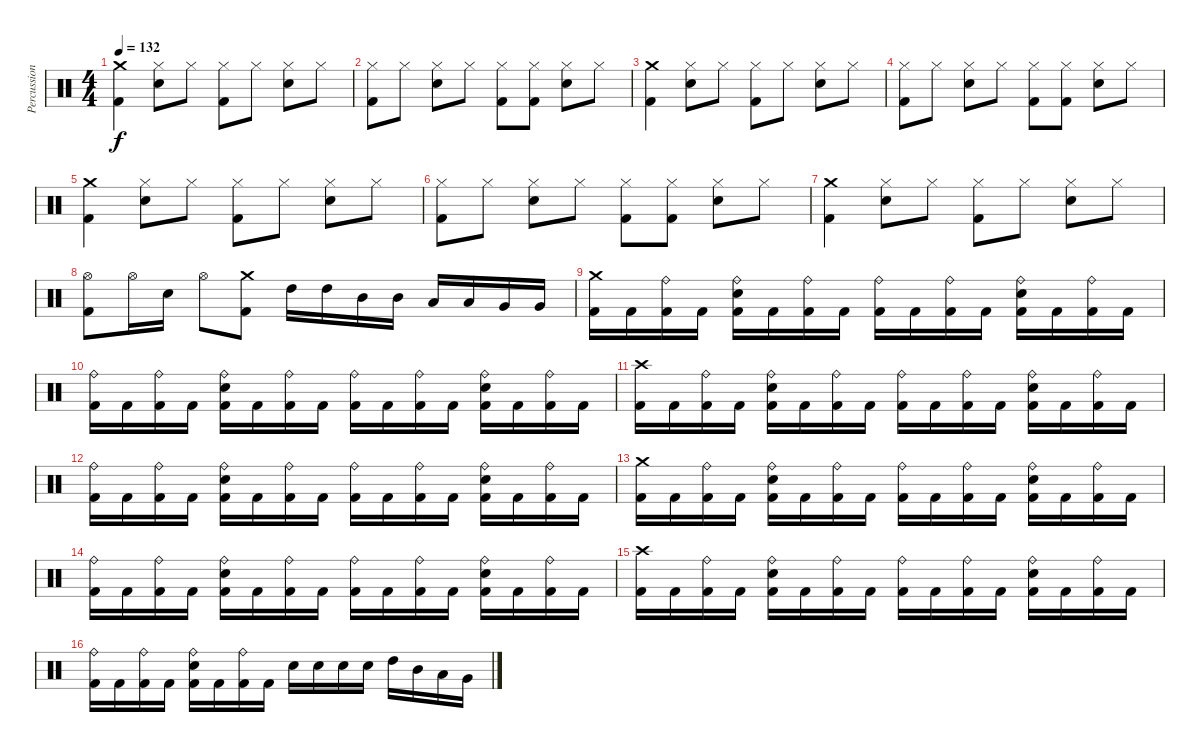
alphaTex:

\track ("Percussion" "Percussion") {instrument percussion}
\staff {score}
\articulation defaults
\ts (4 4)
\tempo 132
\clef neutral
\ks c
("Kick (hit) 2" "Crash medium (hit)").4{dy f} ("Snare (hit) 2" "Hi-Hat (closed)").8 "Hi-Hat (closed)".8 ("Kick (hit) 2" "Hi-Hat (closed)").8 "Hi-Hat (closed)".8 ("Snare (hit) 2" "Hi-Hat (closed)").8 "Hi-Hat (closed)".8 |
("Kick (hit) 2" "Hi-Hat (closed)").8 "Hi-Hat (closed)".8 ("Snare (hit) 2" "Hi-Hat (closed)").8 "Hi-Hat (closed)".8 ("Kick (hit) 2" "Hi-Hat (closed)").8 ("Kick (hit) 2" "Hi-Hat (closed)").8 ("Snare (hit) 2" "Hi-Hat (closed)").8 "Hi-Hat (closed)".8 |
("Kick (hit) 2" "Crash medium (hit)").4 ("Snare (hit) 2" "Hi-Hat (closed)").8 "Hi-Hat (closed)".8 ("Kick (hit) 2" "Hi-Hat (closed)").8 "Hi-Hat (closed)".8 ("Snare (hit) 2" "Hi-Hat (closed)").8 "Hi-Hat (closed)".8 |
("Kick (hit) 2" "Hi-Hat (closed)").8 "Hi-Hat (closed)".8 ("Snare (hit) 2" "Hi-Hat (closed)").8 "Hi-Hat (closed)".8 ("Kick (hit) 2" "Hi-Hat (closed)").8 ("Kick (hit) 2" "Hi-Hat (closed)").8 ("Snare (hit) 2" "Hi-Hat (closed)").8 "Hi-Hat (closed)".8 |
("Kick (hit) 2" "Crash medium (hit)").4 ("Snare (hit) 2" "Hi-Hat (closed)").8 "Hi-Hat (closed)".8 ("Kick (hit) 2" "Hi-Hat (closed)").8 "Hi-Hat (closed)".8 ("Snare (hit) 2" "Hi-Hat (closed)").8 "Hi-Hat (closed)".8 |
("Kick (hit) 2" "Hi-Hat (closed)").8 "Hi-Hat (closed)".8 ("Snare (hit) 2" "Hi-Hat (closed)").8 "Hi-Hat (closed)".8 ("Kick (hit) 2" "Hi-Hat (closed)").8 ("Kick (hit) 2" "Hi-Hat (closed)").8 ("Snare (hit) 2" "Hi-Hat (closed)").8 "Hi-Hat (closed)".8 |
("Kick (hit) 2" "Crash medium (hit)").4 ("Snare (hit) 2" "Hi-Hat (closed)").8 "Hi-Hat (closed)".8 ("Kick (hit) 2" "Hi-Hat (closed)").8 "Hi-Hat (closed)".8 ("Snare (hit) 2" "Hi-Hat (closed)").8 "Hi-Hat (closed)".8 |
("Kick (hit) 2" "Hi-Hat (open)").8 "Hi-Hat (open)".16 "Snare (hit) 2".16 "Hi-Hat (open)".8 ("Kick (hit) 2" "Crash medium (hit)").8 "High Tom (hit)".16 "High Tom (hit)".16 "Mid Tom (hit)".16 "Mid Tom (hit)".16 "Low Tom (hit)".16 "Low Tom (hit)".16 "Very Low Tom (hit)".16 "Very Low Tom (hit)".16 |
("Crash medium (hit)" "Kick (hit) 2").16 "Kick (hit) 2".16 ("Ride (bell)" "Kick (hit) 2").16 "Kick (hit) 2".16 ("Snare (hit) 2" "Ride (bell)" "Kick (hit) 2").16 "Kick (hit) 2".16 ("Ride (bell)" "Kick (hit) 2").16 "Kick (hit) 2".16 ("Ride (bell)" "Kick (hit) 2").16 "Kick (hit) 2".16 ("Ride (bell)" "Kick (hit) 2").16 "Kick (hit) 2".16 ("Snare (hit) 2" "Ride (bell)" "Kick (hit) 2").16 "Kick (hit) 2".16 ("Ride (bell)" "Kick (hit) 2").16 "Kick (hit) 2".16 |
("Ride (bell)" "Kick (hit) 2").16 "Kick (hit) 2".16 ("Ride (bell)" "Kick (hit) 2").16 "Kick (hit) 2".16 ("Snare (hit) 2" "Ride (bell)" "Kick (hit) 2").16 "Kick (hit) 2".16 ("Ride (bell)" "Kick (hit) 2").16 "Kick (hit) 2".16 ("Ride (bell)" "Kick (hit) 2").16 "Kick (hit) 2".16 ("Ride (bell)" "Kick (hit) 2").16 "Kick (hit) 2".16 ("Snare (hit) 2" "Ride (bell)" "Kick (hit) 2").16 "Kick (hit) 2".16 ("Ride (bell)" "Kick (hit) 2").16 "Kick (hit) 2".16 |
("Crash high (hit)" "Kick (hit) 2").16 "Kick (hit) 2".16 ("Ride (bell)" "Kick (hit) 2").16 "Kick (hit) 2".16 ("Snare (hit) 2" "Ride (bell)" "Kick (hit) 2").16 "Kick (hit) 2".16 ("Ride (bell)" "Kick (hit) 2").16 "Kick (hit) 2".16 ("Ride (bell)" "Kick (hit) 2").16 "Kick (hit) 2".16 ("Ride (bell)" "Kick (hit) 2").16 "Kick (hit) 2".16 ("Snare (hit) 2" "Ride (bell)" "Kick (hit) 2").16 "Kick (hit) 2".16 ("Ride (bell)" "Kick (hit) 2").16 "Kick (hit) 2".16 |
("Ride (bell)" "Kick (hit) 2").16 "Kick (hit) 2".16 ("Ride (bell)" "Kick (hit) 2").16 "Kick (hit) 2".16 ("Snare (hit) 2" "Ride (bell)" "Kick (hit) 2").16 "Kick (hit) 2".16 ("Ride (bell)" "Kick (hit) 2").16 "Kick (hit) 2".16 ("Ride (bell)" "Kick (hit) 2").16 "Kick (hit) 2".16 ("Ride (bell)" "Kick (hit) 2").16 "Kick (hit) 2".16 ("Snare (hit) 2" "Ride (bell)" "Kick (hit) 2").16 "Kick (hit) 2".16 ("Ride (bell)" "Kick (hit) 2").16 "Kick (hit) 2".16 |
("Crash medium (hit)" "Kick (hit) 2").16 "Kick (hit) 2".16 ("Ride (bell)" "Kick (hit) 2").16 "Kick (hit) 2".16 ("Snare (hit) 2" "Ride (bell)" "Kick (hit) 2").16 "Kick (hit) 2".16 ("Ride (bell)" "Kick (hit) 2").16 "Kick (hit) 2".16 ("Ride (bell)" "Kick (hit) 2").16 "Kick (hit) 2".16 ("Ride (bell)" "Kick (hit) 2").16 "Kick (hit) 2".16 ("Snare (hit) 2" "Ride (bell)" "Kick (hit) 2").16 "Kick (hit) 2".16 ("Ride (bell)" "Kick (hit) 2").16 "Kick (hit) 2".16 |
("Ride (bell)" "Kick (hit) 2").16 "Kick (hit) 2".16 ("Ride (bell)" "Kick (hit) 2").16 "Kick (hit) 2".16 ("Snare (hit) 2" "Ride (bell)" "Kick (hit) 2").16 "Kick (hit) 2".16 ("Ride (bell)" "Kick (hit) 2").16 "Kick (hit) 2".16 ("Ride (bell)" "Kick (hit) 2").16 "Kick (hit) 2".16 ("Ride (bell)" "Kick (hit) 2").16 "Kick (hit) 2".16 ("Snare (hit) 2" "Ride (bell)" "Kick (hit) 2").16 "Kick (hit) 2".16 ("Ride (bell)" "Kick (hit) 2").16 "Kick (hit) 2".16 |
("Crash high (hit)" "Kick (hit) 2").16 "Kick (hit) 2".16 ("Ride (bell)" "Kick (hit) 2").16 "Kick (hit) 2".16 ("Snare (hit) 2" "Ride (bell)" "Kick (hit) 2").16 "Kick (hit) 2".16 ("Ride (bell)" "Kick (hit) 2").16 "Kick (hit) 2".16 ("Ride (bell)" "Kick (hit) 2").16 "Kick (hit) 2".16 ("Ride (bell)" "Kick (hit) 2").16 "Kick (hit) 2".16 ("Snare (hit) 2" "Ride (bell)" "Kick (hit) 2").16 "Kick (hit) 2".16 ("Ride (bell)" "Kick (hit) 2").16 "Kick (hit) 2".16 |
("Ride (bell)" "Kick (hit) 2").16 "Kick (hit) 2".16 ("Ride (bell)" "Kick (hit) 2").16 "Kick (hit) 2".16 ("Snare (hit) 2" "Ride (bell)" "Kick (hit) 2").16 "Kick (hit) 2".16 ("Ride (bell)" "Kick (hit) 2").16 "Kick (hit) 2".16 "Snare (hit) 2".16 "Snare (hit) 2".16 "Snare (hit) 2".16 "Snare (hit) 2".16 "High Tom (hit)".16 "Mid Tom (hit)".16 "Low Tom (hit)".16 "Very Low Tom (hit)".16
